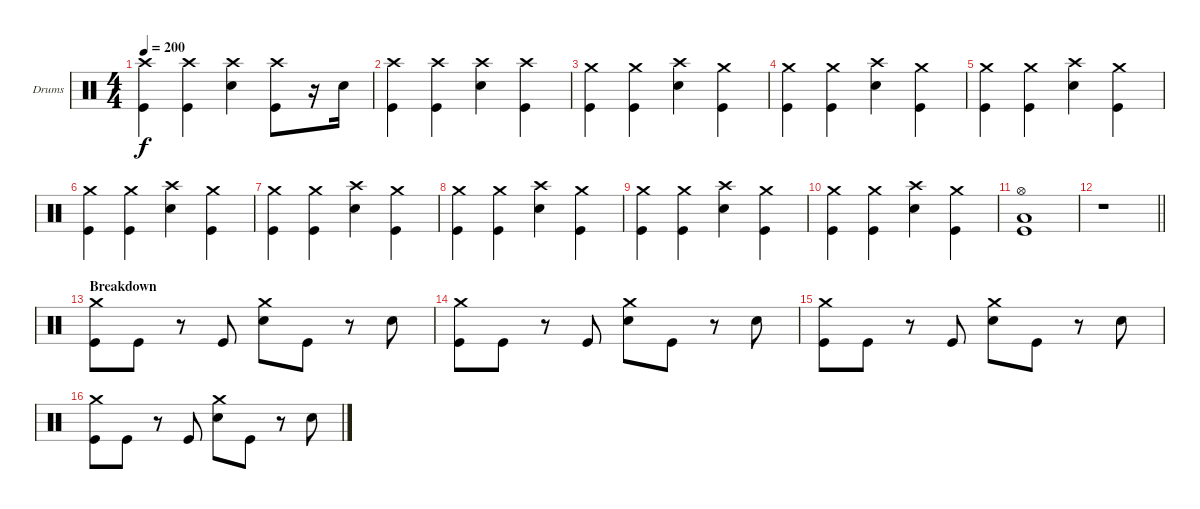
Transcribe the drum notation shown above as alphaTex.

\bracketExtendMode groupsimilarinstruments
\firstSystemTrackNameOrientation horizontal
\otherSystemsTrackNameOrientation horizontal
\track ("Drumkit" "Drums") {instrument percussion}
\staff {score}
\articulation defaults
\ts (4 4)
\tempo 200
\clef neutral
\ks c
("Crash high (hit)" "Kick (hit)").4{dy f} ("Crash high (hit)" "Kick (hit)").4 ("Crash high (hit)" "Snare (hit) 2").4 ("Crash high (hit)" "Kick (hit)").8 r.16 "Snare (hit) 2".16 |
("Crash high (hit)" "Kick (hit)").4 ("Crash high (hit)" "Kick (hit)").4 ("Crash high (hit)" "Snare (hit) 2").4 ("Crash high (hit)" "Kick (hit)").4 |
("Kick (hit)" "Crash medium (hit)").4 ("Kick (hit)" "Crash medium (hit)").4 ("Snare (hit) 2" "Crash high (hit)").4 ("Kick (hit)" "Crash medium (hit)").4 |
("Kick (hit)" "Crash medium (hit)").4 ("Kick (hit)" "Crash medium (hit)").4 ("Snare (hit) 2" "Crash high (hit)").4 ("Kick (hit)" "Crash medium (hit)").4 |
("Kick (hit)" "Crash medium (hit)").4 ("Kick (hit)" "Crash medium (hit)").4 ("Snare (hit) 2" "Crash high (hit)").4 ("Kick (hit)" "Crash medium (hit)").4 |
("Kick (hit)" "Crash medium (hit)").4 ("Kick (hit)" "Crash medium (hit)").4 ("Snare (hit) 2" "Crash high (hit)").4 ("Kick (hit)" "Crash medium (hit)").4 |
("Kick (hit)" "Crash medium (hit)").4 ("Kick (hit)" "Crash medium (hit)").4 ("Snare (hit) 2" "Crash high (hit)").4 ("Kick (hit)" "Crash medium (hit)").4 |
("Kick (hit)" "Crash medium (hit)").4 ("Kick (hit)" "Crash medium (hit)").4 ("Snare (hit) 2" "Crash high (hit)").4 ("Kick (hit)" "Crash medium (hit)").4 |
("Kick (hit)" "Crash medium (hit)").4 ("Kick (hit)" "Crash medium (hit)").4 ("Snare (hit) 2" "Crash high (hit)").4 ("Kick (hit)" "Crash medium (hit)").4 |
("Kick (hit)" "Crash medium (hit)").4 ("Kick (hit)" "Crash medium (hit)").4 ("Snare (hit) 2" "Crash high (hit)").4 ("Kick (hit)" "Crash medium (hit)").4 |
("Low Tom (hit)" "Hi-Hat (open)" "Kick (hit)").1 |
\barLineRight lightlight
r.1 |
\section ("" "Breakdown")
("Crash medium (hit)" "Kick (hit)").8 "Kick (hit)".8 r.8 "Kick (hit)".8 ("Crash medium (hit)" "Snare (hit) 2").8 "Kick (hit)".8 r.8 "Snare (hit) 2".8 |
("Crash medium (hit)" "Kick (hit)").8 "Kick (hit)".8 r.8 "Kick (hit)".8 ("Crash medium (hit)" "Snare (hit) 2").8 "Kick (hit)".8 r.8 "Snare (hit) 2".8 |
("Crash medium (hit)" "Kick (hit)").8 "Kick (hit)".8 r.8 "Kick (hit)".8 ("Crash medium (hit)" "Snare (hit) 2").8 "Kick (hit)".8 r.8 "Snare (hit) 2".8 |
("Crash medium (hit)" "Kick (hit)").8 "Kick (hit)".8 r.8 "Kick (hit)".8 ("Crash medium (hit)" "Snare (hit) 2").8 "Kick (hit)".8 r.8 "Snare (hit) 2".8
